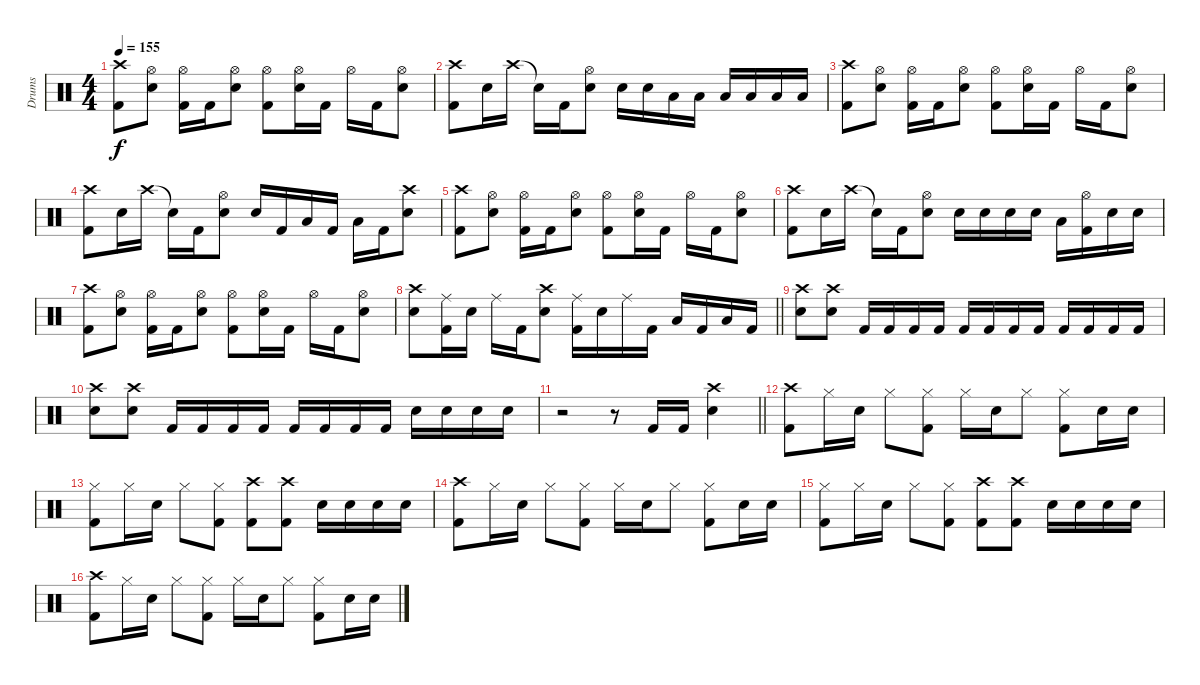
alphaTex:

\track ("Drums" "Drums") {instrument percussion}
\staff {score}
\articulation defaults
\ts (4 4)
\tempo 155
\clef neutral
\ks c
("Crash high (hit)" "Kick (hit) 2").8{dy f} ("Hi-Hat (open)" "Snare (hit) 2").8 ("Hi-Hat (open)" "Kick (hit) 2").16 "Kick (hit) 2".16 ("Hi-Hat (open)" "Snare (hit) 2").8 ("Hi-Hat (open)" "Kick (hit) 2").8 ("Hi-Hat (open)" "Snare (hit) 2").16 "Kick (hit) 2".16 "Hi-Hat (open)".16 "Kick (hit) 2".16 ("Hi-Hat (open)" "Snare (hit) 2").8 |
("Crash high (hit)" "Kick (hit) 2").8 "Snare (hit) 2".16 "Crash high (hit)".16 "Snare (hit)"{t}.16 "Kick (hit) 2".16 ("Hi-Hat (open)" "Snare (hit) 2").8 "Snare (hit) 2".16 "Snare (hit) 2".16 "Low Tom (hit)".16 "Low Tom (hit)".16 "Low Tom (hit)".16 "Low Tom (hit)".16 "Low Floor Tom (hit)".16 "Low Floor Tom (hit)".16 |
("Crash high (hit)" "Kick (hit) 2").8 ("Hi-Hat (open)" "Snare (hit) 2").8 ("Hi-Hat (open)" "Kick (hit) 2").16 "Kick (hit) 2".16 ("Hi-Hat (open)" "Snare (hit) 2").8 ("Hi-Hat (open)" "Kick (hit) 2").8 ("Hi-Hat (open)" "Snare (hit) 2").16 "Kick (hit) 2".16 "Hi-Hat (open)".16 "Kick (hit) 2".16 ("Hi-Hat (open)" "Snare (hit) 2").8 |
("Crash high (hit)" "Kick (hit) 2").8 "Snare (hit) 2".16 "Crash high (hit)".16 "Snare (hit)"{t}.16 "Kick (hit) 2".16 ("Hi-Hat (open)" "Snare (hit) 2").8 "Snare (hit) 2".16 "Kick (hit) 2".16 "Low Tom (hit)".16 "Kick (hit) 2".16 "Low Floor Tom (hit)".16 "Kick (hit) 2".16 ("Crash high (hit)" "Snare (hit) 2").8 |
("Crash high (hit)" "Kick (hit) 2").8 ("Hi-Hat (open)" "Snare (hit) 2").8 ("Hi-Hat (open)" "Kick (hit) 2").16 "Kick (hit) 2".16 ("Hi-Hat (open)" "Snare (hit) 2").8 ("Hi-Hat (open)" "Kick (hit) 2").8 ("Hi-Hat (open)" "Snare (hit) 2").16 "Kick (hit) 2".16 "Hi-Hat (open)".16 "Kick (hit) 2".16 ("Hi-Hat (open)" "Snare (hit) 2").8 |
("Crash high (hit)" "Kick (hit) 2").8 "Snare (hit) 2".16 "Crash high (hit)".16 "Snare (hit)"{t}.16 "Kick (hit) 2".16 ("Hi-Hat (open)" "Snare (hit) 2").8 "Snare (hit) 2".16 "Snare (hit) 2".16 "Snare (hit) 2".16 "Snare (hit) 2".16 "Low Tom (hit)".16 ("Hi-Hat (open)" "Kick (hit) 2").16 "Snare (hit) 2".16 "Snare (hit) 2".16 |
("Crash high (hit)" "Kick (hit) 2").8 ("Hi-Hat (open)" "Snare (hit) 2").8 ("Hi-Hat (open)" "Kick (hit) 2").16 "Kick (hit) 2".16 ("Hi-Hat (open)" "Snare (hit) 2").8 ("Hi-Hat (open)" "Kick (hit) 2").8 ("Hi-Hat (open)" "Snare (hit) 2").16 "Kick (hit) 2".16 "Hi-Hat (open)".16 "Kick (hit) 2".16 ("Hi-Hat (open)" "Snare (hit) 2").8 |
\barLineRight lightlight
("Crash high (hit)" "Snare (hit) 2").8 ("Ride (middle)" "Kick (hit) 2").16 "Snare (hit) 2".16 "Ride (middle)".16 "Kick (hit) 2".16 ("Crash high (hit)" "Snare (hit) 2").8 ("Ride (middle)" "Kick (hit) 2").16 "Snare (hit) 2".16 "Ride (middle)".16 "Kick (hit) 2".16 "Low Tom (hit)".16 "Kick (hit) 2".16 "Low Floor Tom (hit)".16 "Kick (hit) 2".16 |
("Crash high (hit)" "Snare (hit) 2").8 ("Crash high (hit)" "Snare (hit) 2").8 "Kick (hit) 2".16 "Kick (hit) 2".16 "Kick (hit) 2".16 "Kick (hit) 2".16 "Kick (hit) 2".16 "Kick (hit) 2".16 "Kick (hit) 2".16 "Kick (hit) 2".16 "Kick (hit) 2".16 "Kick (hit) 2".16 "Kick (hit) 2".16 "Kick (hit) 2".16 |
("Crash high (hit)" "Snare (hit) 2").8 ("Crash high (hit)" "Snare (hit) 2").8 "Kick (hit) 2".16 "Kick (hit) 2".16 "Kick (hit) 2".16 "Kick (hit) 2".16 "Kick (hit) 2".16 "Kick (hit) 2".16 "Kick (hit) 2".16 "Kick (hit) 2".16 "Snare (hit) 2".16 "Snare (hit) 2".16 "Snare (hit) 2".16 "Snare (hit) 2".16 |
\barLineRight lightlight
r.2 r.8 "Kick (hit) 2".16 "Kick (hit) 2".16 ("Crash high (hit)" "Snare (hit) 2").4 |
("Crash high (hit)" "Kick (hit) 2").8 "Hi-Hat (closed)".16 "Snare (hit) 2".16 "Hi-Hat (closed)".8 ("Hi-Hat (closed)" "Kick (hit) 2").8 "Hi-Hat (closed)".16 "Snare (hit) 2".16 "Hi-Hat (closed)".8 ("Hi-Hat (closed)" "Kick (hit) 2").8 "Snare (hit) 2".16 "Snare (hit) 2".16 |
("Hi-Hat (closed)" "Kick (hit) 2").8 "Hi-Hat (closed)".16 "Snare (hit) 2".16 "Hi-Hat (closed)".8 ("Hi-Hat (closed)" "Kick (hit) 2").8 ("Crash high (hit)" "Kick (hit) 2").8 ("Crash high (hit)" "Kick (hit) 2").8 "Snare (hit) 2".16 "Snare (hit) 2".16 "Snare (hit) 2".16 "Snare (hit) 2".16 |
("Crash high (hit)" "Kick (hit) 2").8 "Hi-Hat (closed)".16 "Snare (hit) 2".16 "Hi-Hat (closed)".8 ("Hi-Hat (closed)" "Kick (hit) 2").8 "Hi-Hat (closed)".16 "Snare (hit) 2".16 "Hi-Hat (closed)".8 ("Hi-Hat (closed)" "Kick (hit) 2").8 "Snare (hit) 2".16 "Snare (hit) 2".16 |
("Hi-Hat (closed)" "Kick (hit) 2").8 "Hi-Hat (closed)".16 "Snare (hit) 2".16 "Hi-Hat (closed)".8 ("Hi-Hat (closed)" "Kick (hit) 2").8 ("Crash high (hit)" "Kick (hit) 2").8 ("Crash high (hit)" "Kick (hit) 2").8 "Snare (hit) 2".16 "Snare (hit) 2".16 "Snare (hit) 2".16 "Snare (hit) 2".16 |
("Crash high (hit)" "Kick (hit) 2").8 "Hi-Hat (closed)".16 "Snare (hit) 2".16 "Hi-Hat (closed)".8 ("Hi-Hat (closed)" "Kick (hit) 2").8 "Hi-Hat (closed)".16 "Snare (hit) 2".16 "Hi-Hat (closed)".8 ("Hi-Hat (closed)" "Kick (hit) 2").8 "Snare (hit) 2".16 "Snare (hit) 2".16
